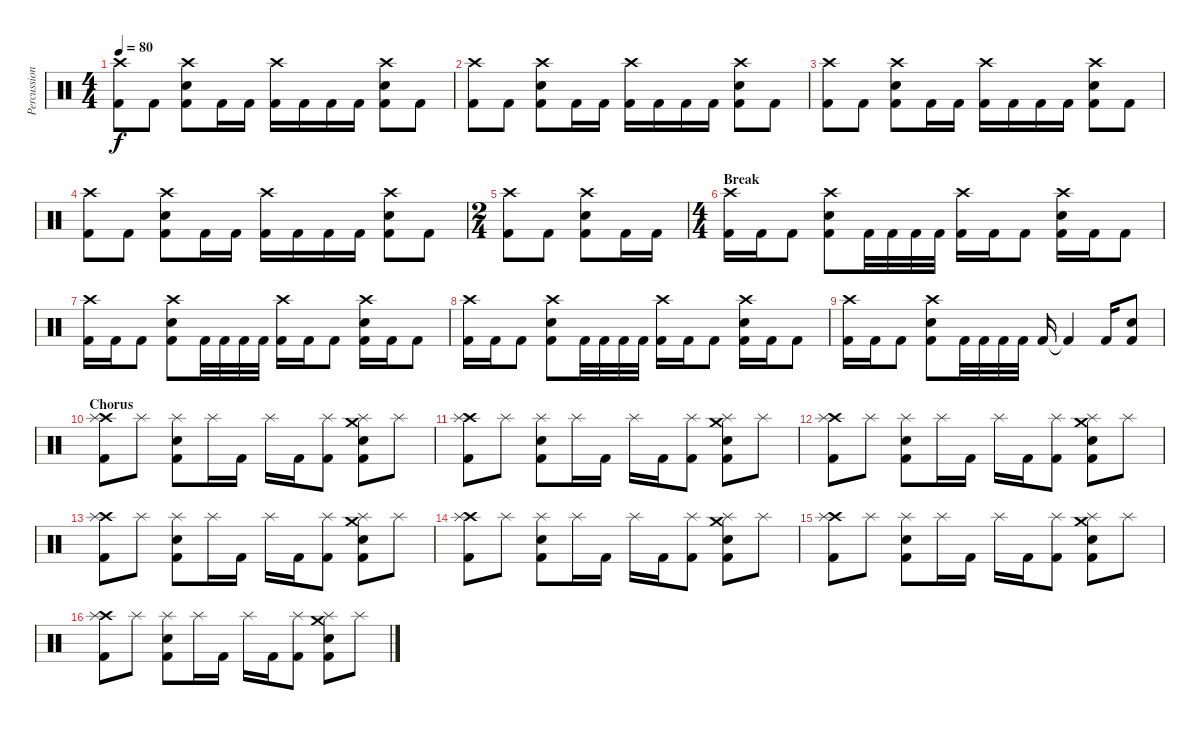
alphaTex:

\track ("Percussion" "Percussion") {instrument percussion}
\staff {score}
\articulation defaults
\ts (4 4)
\tempo 80
\clef neutral
\ks c
("Crash high (hit)" "Kick (hit) 2").8{dy f} "Kick (hit) 2".8 ("Crash high (hit)" "Electric Snare (hit)" "Kick (hit) 2").8 "Kick (hit) 2".16 "Kick (hit) 2".16 ("Crash high (hit)" "Kick (hit) 2").16 "Kick (hit) 2".16 "Kick (hit) 2".16 "Kick (hit) 2".16 ("Crash high (hit)" "Electric Snare (hit)" "Kick (hit) 2").8 "Kick (hit) 2".8 |
("Crash high (hit)" "Kick (hit) 2").8 "Kick (hit) 2".8 ("Crash high (hit)" "Electric Snare (hit)" "Kick (hit) 2").8 "Kick (hit) 2".16 "Kick (hit) 2".16 ("Crash high (hit)" "Kick (hit) 2").16 "Kick (hit) 2".16 "Kick (hit) 2".16 "Kick (hit) 2".16 ("Crash high (hit)" "Electric Snare (hit)" "Kick (hit) 2").8 "Kick (hit) 2".8 |
("Crash high (hit)" "Kick (hit) 2").8 "Kick (hit) 2".8 ("Crash high (hit)" "Electric Snare (hit)" "Kick (hit) 2").8 "Kick (hit) 2".16 "Kick (hit) 2".16 ("Crash high (hit)" "Kick (hit) 2").16 "Kick (hit) 2".16 "Kick (hit) 2".16 "Kick (hit) 2".16 ("Crash high (hit)" "Electric Snare (hit)" "Kick (hit) 2").8 "Kick (hit) 2".8 |
("Crash high (hit)" "Kick (hit) 2").8 "Kick (hit) 2".8 ("Crash high (hit)" "Electric Snare (hit)" "Kick (hit) 2").8 "Kick (hit) 2".16 "Kick (hit) 2".16 ("Crash high (hit)" "Kick (hit) 2").16 "Kick (hit) 2".16 "Kick (hit) 2".16 "Kick (hit) 2".16 ("Crash high (hit)" "Electric Snare (hit)" "Kick (hit) 2").8 "Kick (hit) 2".8 |
\ts (2 4)
("Crash high (hit)" "Kick (hit) 2").8 "Kick (hit) 2".8 ("Crash high (hit)" "Electric Snare (hit)" "Kick (hit) 2").8 "Kick (hit) 2".16 "Kick (hit) 2".16 |
\ts (4 4)
\section ("" "Break")
("Crash high (hit)" "Kick (hit) 2").16 "Kick (hit) 2".16 "Kick (hit) 2".8 ("Crash high (hit)" "Electric Snare (hit)" "Kick (hit) 2").8 "Kick (hit) 2".32 "Kick (hit) 2".32 "Kick (hit) 2".32 "Kick (hit) 2".32 ("Crash high (hit)" "Kick (hit) 2").16 "Kick (hit) 2".16 "Kick (hit) 2".8 ("Crash high (hit)" "Electric Snare (hit)" "Kick (hit) 2").16 "Kick (hit) 2".16 "Kick (hit) 2".8 |
("Crash high (hit)" "Kick (hit) 2").16 "Kick (hit) 2".16 "Kick (hit) 2".8 ("Crash high (hit)" "Electric Snare (hit)" "Kick (hit) 2").8 "Kick (hit) 2".32 "Kick (hit) 2".32 "Kick (hit) 2".32 "Kick (hit) 2".32 ("Crash high (hit)" "Kick (hit) 2").16 "Kick (hit) 2".16 "Kick (hit) 2".8 ("Crash high (hit)" "Electric Snare (hit)" "Kick (hit) 2").16 "Kick (hit) 2".16 "Kick (hit) 2".8 |
("Crash high (hit)" "Kick (hit) 2").16 "Kick (hit) 2".16 "Kick (hit) 2".8 ("Crash high (hit)" "Electric Snare (hit)" "Kick (hit) 2").8 "Kick (hit) 2".32 "Kick (hit) 2".32 "Kick (hit) 2".32 "Kick (hit) 2".32 ("Crash high (hit)" "Kick (hit) 2").16 "Kick (hit) 2".16 "Kick (hit) 2".8 ("Crash high (hit)" "Electric Snare (hit)" "Kick (hit) 2").16 "Kick (hit) 2".16 "Kick (hit) 2".8 |
("Crash high (hit)" "Kick (hit) 2").16 "Kick (hit) 2".16 "Kick (hit) 2".8 ("Crash high (hit)" "Electric Snare (hit)" "Kick (hit) 2").8 "Kick (hit) 2".32 "Kick (hit) 2".32 "Kick (hit) 2".32 "Kick (hit) 2".32 "Kick (hit) 2".16 "Kick (hit) 2"{t}.4 "Kick (hit) 2".16 ("Electric Snare (hit)" "Kick (hit) 2").8 |
\section ("" "Chorus")
("Crash high (hit)" "Splash (hit)" "Kick (hit) 2").8 "Splash (hit)".8 ("Splash (hit)" "Electric Snare (hit)" "Kick (hit) 2").8 "Splash (hit)".16 "Kick (hit) 2".16 "Splash (hit)".16 "Kick (hit) 2".16 ("Splash (hit)" "Kick (hit) 2").8 ("Crash medium (hit)" "Splash (hit)" "Electric Snare (hit)" "Kick (hit) 2").8 "Splash (hit)".8 |
("Crash high (hit)" "Splash (hit)" "Kick (hit) 2").8 "Splash (hit)".8 ("Splash (hit)" "Electric Snare (hit)" "Kick (hit) 2").8 "Splash (hit)".16 "Kick (hit) 2".16 "Splash (hit)".16 "Kick (hit) 2".16 ("Splash (hit)" "Kick (hit) 2").8 ("Crash medium (hit)" "Splash (hit)" "Electric Snare (hit)" "Kick (hit) 2").8 "Splash (hit)".8 |
("Crash high (hit)" "Splash (hit)" "Kick (hit) 2").8 "Splash (hit)".8 ("Splash (hit)" "Electric Snare (hit)" "Kick (hit) 2").8 "Splash (hit)".16 "Kick (hit) 2".16 "Splash (hit)".16 "Kick (hit) 2".16 ("Splash (hit)" "Kick (hit) 2").8 ("Crash medium (hit)" "Splash (hit)" "Electric Snare (hit)" "Kick (hit) 2").8 "Splash (hit)".8 |
("Crash high (hit)" "Splash (hit)" "Kick (hit) 2").8 "Splash (hit)".8 ("Splash (hit)" "Electric Snare (hit)" "Kick (hit) 2").8 "Splash (hit)".16 "Kick (hit) 2".16 "Splash (hit)".16 "Kick (hit) 2".16 ("Splash (hit)" "Kick (hit) 2").8 ("Crash medium (hit)" "Splash (hit)" "Electric Snare (hit)" "Kick (hit) 2").8 "Splash (hit)".8 |
("Crash high (hit)" "Splash (hit)" "Kick (hit) 2").8 "Splash (hit)".8 ("Splash (hit)" "Electric Snare (hit)" "Kick (hit) 2").8 "Splash (hit)".16 "Kick (hit) 2".16 "Splash (hit)".16 "Kick (hit) 2".16 ("Splash (hit)" "Kick (hit) 2").8 ("Crash medium (hit)" "Splash (hit)" "Electric Snare (hit)" "Kick (hit) 2").8 "Splash (hit)".8 |
("Crash high (hit)" "Splash (hit)" "Kick (hit) 2").8 "Splash (hit)".8 ("Splash (hit)" "Electric Snare (hit)" "Kick (hit) 2").8 "Splash (hit)".16 "Kick (hit) 2".16 "Splash (hit)".16 "Kick (hit) 2".16 ("Splash (hit)" "Kick (hit) 2").8 ("Crash medium (hit)" "Splash (hit)" "Electric Snare (hit)" "Kick (hit) 2").8 "Splash (hit)".8 |
("Crash high (hit)" "Splash (hit)" "Kick (hit) 2").8 "Splash (hit)".8 ("Splash (hit)" "Electric Snare (hit)" "Kick (hit) 2").8 "Splash (hit)".16 "Kick (hit) 2".16 "Splash (hit)".16 "Kick (hit) 2".16 ("Splash (hit)" "Kick (hit) 2").8 ("Crash medium (hit)" "Splash (hit)" "Electric Snare (hit)" "Kick (hit) 2").8 "Splash (hit)".8
